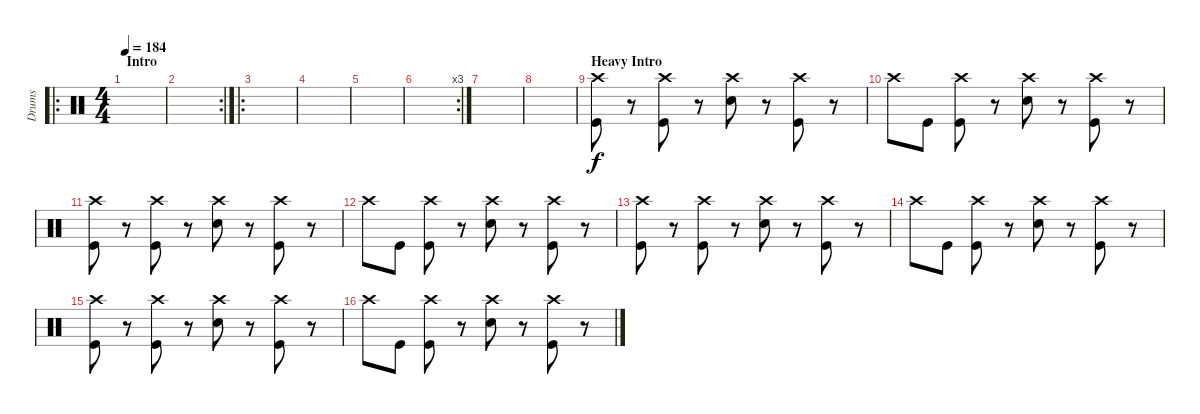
\track ("Drums" "Drums") {instrument percussion}
\staff {score}
\articulation defaults
\ro
\ts (4 4)
\section ("" "Intro")
\tempo 184
\clef neutral
\ks c
|
\rc 2
|
\ro
|
|
|
\rc 3
|
|
|
\section ("" "Heavy Intro")
("Crash high (hit)" "Kick (hit)").8 r.8 ("Crash high (hit)" "Kick (hit)").8 r.8 ("Crash high (hit)" "Electric Snare (hit)").8 r.8 ("Crash high (hit)" "Kick (hit)").8 r.8 |
"Crash high (hit)".8 "Kick (hit)".8 ("Crash high (hit)" "Kick (hit)").8 r.8 ("Crash high (hit)" "Electric Snare (hit)").8 r.8 ("Crash high (hit)" "Kick (hit)").8 r.8 |
("Crash high (hit)" "Kick (hit)").8 r.8 ("Crash high (hit)" "Kick (hit)").8 r.8 ("Crash high (hit)" "Electric Snare (hit)").8 r.8 ("Crash high (hit)" "Kick (hit)").8 r.8 |
"Crash high (hit)".8 "Kick (hit)".8 ("Crash high (hit)" "Kick (hit)").8 r.8 ("Crash high (hit)" "Electric Snare (hit)").8 r.8 ("Crash high (hit)" "Kick (hit)").8 r.8 |
("Crash high (hit)" "Kick (hit)").8 r.8 ("Crash high (hit)" "Kick (hit)").8 r.8 ("Crash high (hit)" "Electric Snare (hit)").8 r.8 ("Crash high (hit)" "Kick (hit)").8 r.8 |
"Crash high (hit)".8 "Kick (hit)".8 ("Crash high (hit)" "Kick (hit)").8 r.8 ("Crash high (hit)" "Electric Snare (hit)").8 r.8 ("Crash high (hit)" "Kick (hit)").8 r.8 |
("Crash high (hit)" "Kick (hit)").8 r.8 ("Crash high (hit)" "Kick (hit)").8 r.8 ("Crash high (hit)" "Electric Snare (hit)").8 r.8 ("Crash high (hit)" "Kick (hit)").8 r.8 |
"Crash high (hit)".8 "Kick (hit)".8 ("Crash high (hit)" "Kick (hit)").8 r.8 ("Crash high (hit)" "Electric Snare (hit)").8 r.8 ("Crash high (hit)" "Kick (hit)").8 r.8
